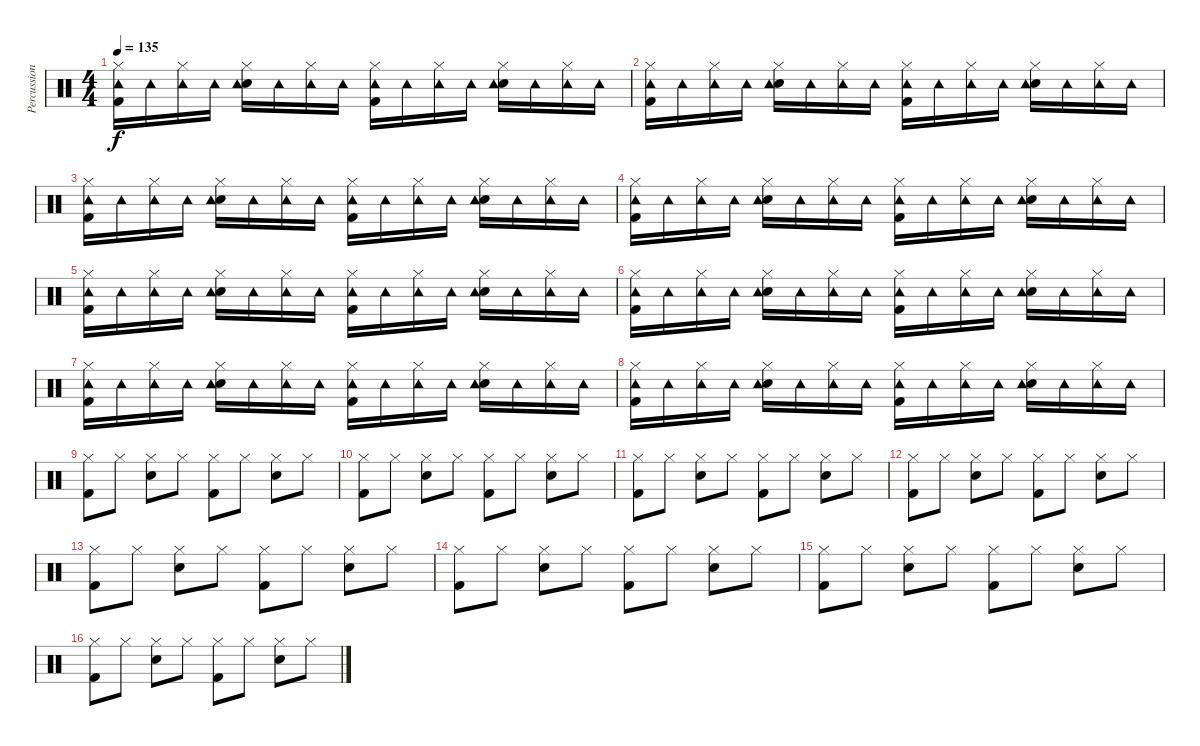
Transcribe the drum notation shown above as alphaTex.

\track ("Percussion" "Percussion") {instrument percussion}
\staff {score}
\articulation defaults
\ts (4 4)
\tempo 135
\clef neutral
\ks c
("Hi-Hat (closed)" "Kick (hit) 2" "Tambourine (hit)").16{dy f} "Tambourine (hit)".16 ("Hi-Hat (closed)" "Tambourine (hit)").16 "Tambourine (hit)".16 ("Hi-Hat (closed)" "Snare (hit) 2" "Tambourine (hit)").16 "Tambourine (hit)".16 ("Hi-Hat (closed)" "Tambourine (hit)").16 "Tambourine (hit)".16 ("Hi-Hat (closed)" "Kick (hit) 2" "Tambourine (hit)").16 "Tambourine (hit)".16 ("Hi-Hat (closed)" "Tambourine (hit)").16 "Tambourine (hit)".16 ("Hi-Hat (closed)" "Snare (hit) 2" "Tambourine (hit)").16 "Tambourine (hit)".16 ("Hi-Hat (closed)" "Tambourine (hit)").16 "Tambourine (hit)".16 |
("Hi-Hat (closed)" "Kick (hit) 2" "Tambourine (hit)").16 "Tambourine (hit)".16 ("Hi-Hat (closed)" "Tambourine (hit)").16 "Tambourine (hit)".16 ("Hi-Hat (closed)" "Snare (hit) 2" "Tambourine (hit)").16 "Tambourine (hit)".16 ("Hi-Hat (closed)" "Tambourine (hit)").16 "Tambourine (hit)".16 ("Hi-Hat (closed)" "Kick (hit) 2" "Tambourine (hit)").16 "Tambourine (hit)".16 ("Hi-Hat (closed)" "Tambourine (hit)").16 "Tambourine (hit)".16 ("Hi-Hat (closed)" "Snare (hit) 2" "Tambourine (hit)").16 "Tambourine (hit)".16 ("Hi-Hat (closed)" "Tambourine (hit)").16 "Tambourine (hit)".16 |
("Hi-Hat (closed)" "Kick (hit) 2" "Tambourine (hit)").16 "Tambourine (hit)".16 ("Hi-Hat (closed)" "Tambourine (hit)").16 "Tambourine (hit)".16 ("Hi-Hat (closed)" "Snare (hit) 2" "Tambourine (hit)").16 "Tambourine (hit)".16 ("Hi-Hat (closed)" "Tambourine (hit)").16 "Tambourine (hit)".16 ("Hi-Hat (closed)" "Kick (hit) 2" "Tambourine (hit)").16 "Tambourine (hit)".16 ("Hi-Hat (closed)" "Tambourine (hit)").16 "Tambourine (hit)".16 ("Hi-Hat (closed)" "Snare (hit) 2" "Tambourine (hit)").16 "Tambourine (hit)".16 ("Hi-Hat (closed)" "Tambourine (hit)").16 "Tambourine (hit)".16 |
("Hi-Hat (closed)" "Kick (hit) 2" "Tambourine (hit)").16 "Tambourine (hit)".16 ("Hi-Hat (closed)" "Tambourine (hit)").16 "Tambourine (hit)".16 ("Hi-Hat (closed)" "Snare (hit) 2" "Tambourine (hit)").16 "Tambourine (hit)".16 ("Hi-Hat (closed)" "Tambourine (hit)").16 "Tambourine (hit)".16 ("Hi-Hat (closed)" "Kick (hit) 2" "Tambourine (hit)").16 "Tambourine (hit)".16 ("Hi-Hat (closed)" "Tambourine (hit)").16 "Tambourine (hit)".16 ("Hi-Hat (closed)" "Snare (hit) 2" "Tambourine (hit)").16 "Tambourine (hit)".16 ("Hi-Hat (closed)" "Tambourine (hit)").16 "Tambourine (hit)".16 |
("Hi-Hat (closed)" "Kick (hit) 2" "Tambourine (hit)").16 "Tambourine (hit)".16 ("Hi-Hat (closed)" "Tambourine (hit)").16 "Tambourine (hit)".16 ("Hi-Hat (closed)" "Snare (hit) 2" "Tambourine (hit)").16 "Tambourine (hit)".16 ("Hi-Hat (closed)" "Tambourine (hit)").16 "Tambourine (hit)".16 ("Hi-Hat (closed)" "Kick (hit) 2" "Tambourine (hit)").16 "Tambourine (hit)".16 ("Hi-Hat (closed)" "Tambourine (hit)").16 "Tambourine (hit)".16 ("Hi-Hat (closed)" "Snare (hit) 2" "Tambourine (hit)").16 "Tambourine (hit)".16 ("Hi-Hat (closed)" "Tambourine (hit)").16 "Tambourine (hit)".16 |
("Hi-Hat (closed)" "Kick (hit) 2" "Tambourine (hit)").16 "Tambourine (hit)".16 ("Hi-Hat (closed)" "Tambourine (hit)").16 "Tambourine (hit)".16 ("Hi-Hat (closed)" "Snare (hit) 2" "Tambourine (hit)").16 "Tambourine (hit)".16 ("Hi-Hat (closed)" "Tambourine (hit)").16 "Tambourine (hit)".16 ("Hi-Hat (closed)" "Kick (hit) 2" "Tambourine (hit)").16 "Tambourine (hit)".16 ("Hi-Hat (closed)" "Tambourine (hit)").16 "Tambourine (hit)".16 ("Hi-Hat (closed)" "Snare (hit) 2" "Tambourine (hit)").16 "Tambourine (hit)".16 ("Hi-Hat (closed)" "Tambourine (hit)").16 "Tambourine (hit)".16 |
("Hi-Hat (closed)" "Kick (hit) 2" "Tambourine (hit)").16 "Tambourine (hit)".16 ("Hi-Hat (closed)" "Tambourine (hit)").16 "Tambourine (hit)".16 ("Hi-Hat (closed)" "Snare (hit) 2" "Tambourine (hit)").16 "Tambourine (hit)".16 ("Hi-Hat (closed)" "Tambourine (hit)").16 "Tambourine (hit)".16 ("Hi-Hat (closed)" "Kick (hit) 2" "Tambourine (hit)").16 "Tambourine (hit)".16 ("Hi-Hat (closed)" "Tambourine (hit)").16 "Tambourine (hit)".16 ("Hi-Hat (closed)" "Snare (hit) 2" "Tambourine (hit)").16 "Tambourine (hit)".16 ("Hi-Hat (closed)" "Tambourine (hit)").16 "Tambourine (hit)".16 |
("Hi-Hat (closed)" "Kick (hit) 2" "Tambourine (hit)").16 "Tambourine (hit)".16 ("Hi-Hat (closed)" "Tambourine (hit)").16 "Tambourine (hit)".16 ("Hi-Hat (closed)" "Snare (hit) 2" "Tambourine (hit)").16 "Tambourine (hit)".16 ("Hi-Hat (closed)" "Tambourine (hit)").16 "Tambourine (hit)".16 ("Hi-Hat (closed)" "Kick (hit) 2" "Tambourine (hit)").16 "Tambourine (hit)".16 ("Hi-Hat (closed)" "Tambourine (hit)").16 "Tambourine (hit)".16 ("Hi-Hat (closed)" "Snare (hit) 2" "Tambourine (hit)").16 "Tambourine (hit)".16 ("Hi-Hat (closed)" "Tambourine (hit)").16 "Tambourine (hit)".16 |
("Hi-Hat (closed)" "Kick (hit) 2").8 "Hi-Hat (closed)".8 ("Hi-Hat (closed)" "Snare (hit) 2").8 "Hi-Hat (closed)".8 ("Hi-Hat (closed)" "Kick (hit) 2").8 "Hi-Hat (closed)".8 ("Hi-Hat (closed)" "Snare (hit) 2").8 "Hi-Hat (closed)".8 |
("Hi-Hat (closed)" "Kick (hit) 2").8 "Hi-Hat (closed)".8 ("Hi-Hat (closed)" "Snare (hit) 2").8 "Hi-Hat (closed)".8 ("Hi-Hat (closed)" "Kick (hit) 2").8 "Hi-Hat (closed)".8 ("Hi-Hat (closed)" "Snare (hit) 2").8 "Hi-Hat (closed)".8 |
("Hi-Hat (closed)" "Kick (hit) 2").8 "Hi-Hat (closed)".8 ("Hi-Hat (closed)" "Snare (hit) 2").8 "Hi-Hat (closed)".8 ("Hi-Hat (closed)" "Kick (hit) 2").8 "Hi-Hat (closed)".8 ("Hi-Hat (closed)" "Snare (hit) 2").8 "Hi-Hat (closed)".8 |
("Hi-Hat (closed)" "Kick (hit) 2").8 "Hi-Hat (closed)".8 ("Hi-Hat (closed)" "Snare (hit) 2").8 "Hi-Hat (closed)".8 ("Hi-Hat (closed)" "Kick (hit) 2").8 "Hi-Hat (closed)".8 ("Hi-Hat (closed)" "Snare (hit) 2").8 "Hi-Hat (closed)".8 |
("Hi-Hat (closed)" "Kick (hit) 2").8 "Hi-Hat (closed)".8 ("Hi-Hat (closed)" "Snare (hit) 2").8 "Hi-Hat (closed)".8 ("Hi-Hat (closed)" "Kick (hit) 2").8 "Hi-Hat (closed)".8 ("Hi-Hat (closed)" "Snare (hit) 2").8 "Hi-Hat (closed)".8 |
("Hi-Hat (closed)" "Kick (hit) 2").8 "Hi-Hat (closed)".8 ("Hi-Hat (closed)" "Snare (hit) 2").8 "Hi-Hat (closed)".8 ("Hi-Hat (closed)" "Kick (hit) 2").8 "Hi-Hat (closed)".8 ("Hi-Hat (closed)" "Snare (hit) 2").8 "Hi-Hat (closed)".8 |
("Hi-Hat (closed)" "Kick (hit) 2").8 "Hi-Hat (closed)".8 ("Hi-Hat (closed)" "Snare (hit) 2").8 "Hi-Hat (closed)".8 ("Hi-Hat (closed)" "Kick (hit) 2").8 "Hi-Hat (closed)".8 ("Hi-Hat (closed)" "Snare (hit) 2").8 "Hi-Hat (closed)".8 |
("Hi-Hat (closed)" "Kick (hit) 2").8 "Hi-Hat (closed)".8 ("Hi-Hat (closed)" "Snare (hit) 2").8 "Hi-Hat (closed)".8 ("Hi-Hat (closed)" "Kick (hit) 2").8 "Hi-Hat (closed)".8 ("Hi-Hat (closed)" "Snare (hit) 2").8 "Hi-Hat (closed)".8
